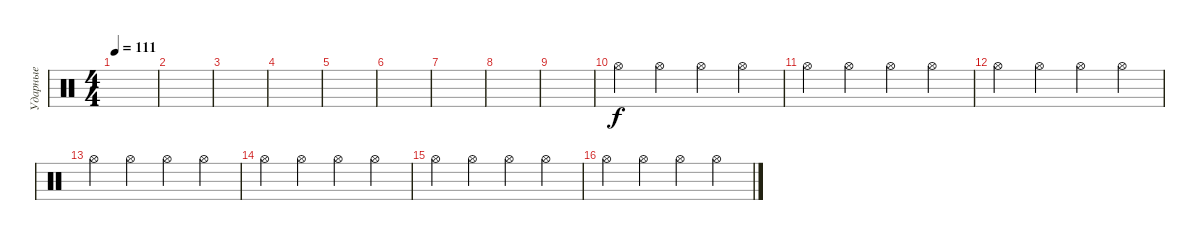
\track ("Ударные" "Ударные") {instrument percussion}
\staff {score}
\articulation defaults
\ts (4 4)
\tempo 111
\clef neutral
\ks c
|
|
|
|
|
|
|
|
|
"Hi-Hat (open)".4 "Hi-Hat (open)".4 "Hi-Hat (open)".4 "Hi-Hat (open)".4 |
"Hi-Hat (open)".4 "Hi-Hat (open)".4 "Hi-Hat (open)".4 "Hi-Hat (open)".4 |
"Hi-Hat (open)".4 "Hi-Hat (open)".4 "Hi-Hat (open)".4 "Hi-Hat (open)".4 |
"Hi-Hat (open)".4 "Hi-Hat (open)".4 "Hi-Hat (open)".4 "Hi-Hat (open)".4 |
"Hi-Hat (open)".4 "Hi-Hat (open)".4 "Hi-Hat (open)".4 "Hi-Hat (open)".4 |
"Hi-Hat (open)".4 "Hi-Hat (open)".4 "Hi-Hat (open)".4 "Hi-Hat (open)".4 |
"Hi-Hat (open)".4 "Hi-Hat (open)".4 "Hi-Hat (open)".4 "Hi-Hat (open)".4
